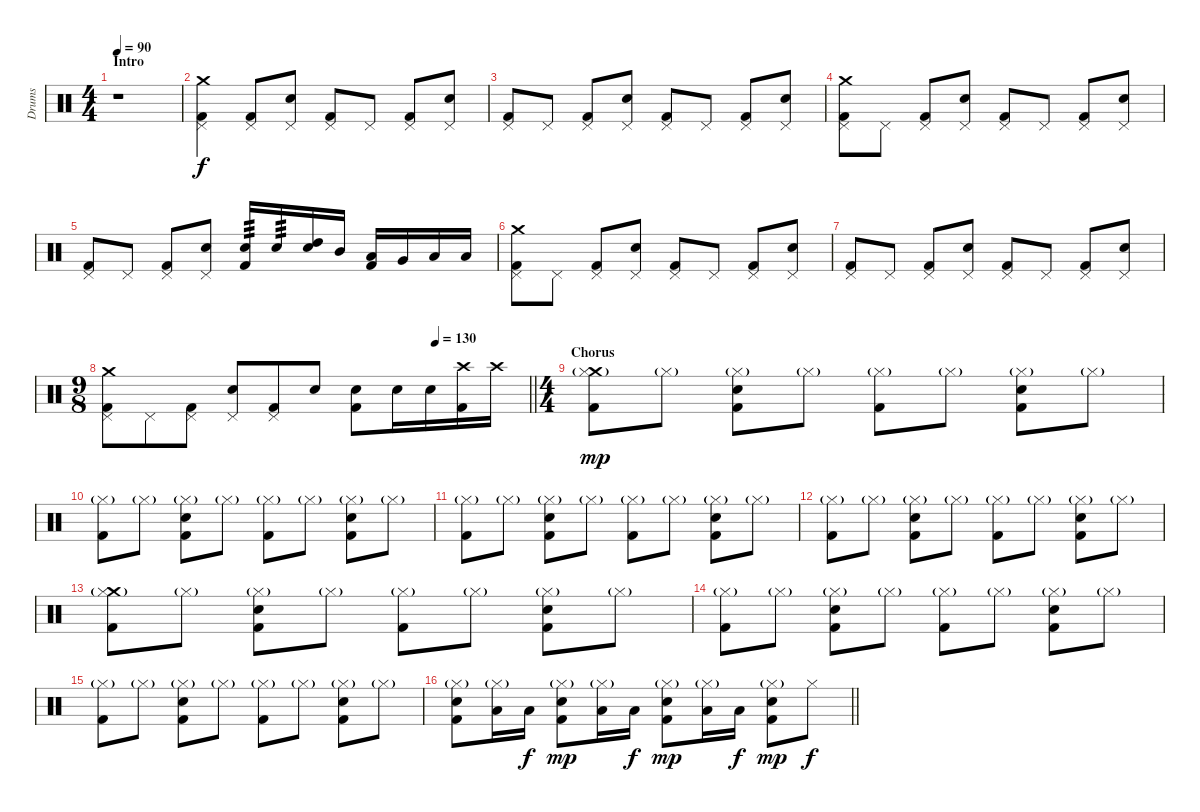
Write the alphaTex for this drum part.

\track ("Drums" "Drums") {instrument percussion}
\staff {score}
\articulation defaults
\ts (4 4)
\section ("" "Intro")
\tempo 90
\clef neutral
\ks c
r.1{dy f} |
("Crash medium (hit)" "Pedal Hi-Hat (hit)" "Kick (hit) 2").4 ("Pedal Hi-Hat (hit)" "Kick (hit) 2").8 ("Pedal Hi-Hat (hit)" "Electric Snare (hit)").8 ("Pedal Hi-Hat (hit)" "Kick (hit) 2").8 "Pedal Hi-Hat (hit)".8 ("Pedal Hi-Hat (hit)" "Kick (hit) 2").8 ("Pedal Hi-Hat (hit)" "Electric Snare (hit)").8 |
("Pedal Hi-Hat (hit)" "Kick (hit) 2").8 "Pedal Hi-Hat (hit)".8 ("Pedal Hi-Hat (hit)" "Kick (hit) 2").8 ("Pedal Hi-Hat (hit)" "Electric Snare (hit)").8 ("Pedal Hi-Hat (hit)" "Kick (hit) 2").8 "Pedal Hi-Hat (hit)".8 ("Pedal Hi-Hat (hit)" "Kick (hit) 2").8 ("Pedal Hi-Hat (hit)" "Electric Snare (hit)").8 |
("Crash medium (hit)" "Pedal Hi-Hat (hit)" "Kick (hit) 2").8 "Pedal Hi-Hat (hit)".8 ("Pedal Hi-Hat (hit)" "Kick (hit) 2").8 ("Pedal Hi-Hat (hit)" "Electric Snare (hit)").8 ("Pedal Hi-Hat (hit)" "Kick (hit) 2").8 "Pedal Hi-Hat (hit)".8 ("Pedal Hi-Hat (hit)" "Kick (hit) 2").8 ("Pedal Hi-Hat (hit)" "Electric Snare (hit)").8 |
("Pedal Hi-Hat (hit)" "Kick (hit) 2").8 "Pedal Hi-Hat (hit)".8 ("Pedal Hi-Hat (hit)" "Kick (hit) 2").8 ("Pedal Hi-Hat (hit)" "Electric Snare (hit)").8 ("Electric Snare (hit)" "Kick (hit) 2").16{tp 3} "Electric Snare (hit)".16{tp 3} ("High Tom (hit)" "Electric Snare (hit)").16 "Mid Tom (hit)".16 ("Low Tom (hit)" "Kick (hit) 2").16 "Very Low Tom (hit)".16 "Low Floor Tom (hit)".16 "Low Floor Tom (hit)".16 |
("Crash medium (hit)" "Pedal Hi-Hat (hit)" "Kick (hit) 2").8 "Pedal Hi-Hat (hit)".8 ("Pedal Hi-Hat (hit)" "Kick (hit) 2").8 ("Pedal Hi-Hat (hit)" "Electric Snare (hit)").8 ("Pedal Hi-Hat (hit)" "Kick (hit) 2").8 "Pedal Hi-Hat (hit)".8 ("Pedal Hi-Hat (hit)" "Kick (hit) 2").8 ("Pedal Hi-Hat (hit)" "Electric Snare (hit)").8 |
("Pedal Hi-Hat (hit)" "Kick (hit) 2").8 "Pedal Hi-Hat (hit)".8 ("Pedal Hi-Hat (hit)" "Kick (hit) 2").8 ("Pedal Hi-Hat (hit)" "Electric Snare (hit)").8 ("Pedal Hi-Hat (hit)" "Kick (hit) 2").8 "Pedal Hi-Hat (hit)".8 ("Pedal Hi-Hat (hit)" "Kick (hit) 2").8 ("Pedal Hi-Hat (hit)" "Electric Snare (hit)").8 |
\ts (9 8)
\tempo (130 0.7777777777777778)
\barLineRight lightlight
("Crash medium (hit)" "Pedal Hi-Hat (hit)" "Kick (hit) 2").8 "Pedal Hi-Hat (hit)".8 ("Pedal Hi-Hat (hit)" "Kick (hit) 2").8 ("Pedal Hi-Hat (hit)" "Electric Snare (hit)").8 ("Pedal Hi-Hat (hit)" "Kick (hit) 2").8 "Electric Snare (hit)".8 ("Electric Snare (hit)" "Kick (hit) 2").8 "Electric Snare (hit)".16 "Electric Snare (hit)".16 ("Crash high (hit)" "Kick (hit) 2").16 "Crash high (hit)".16 |
\ts (4 4)
\section ("" "Chorus")
("Crash medium (hit)" "Hi-Hat (closed)"{g} "Kick (hit) 2").8{dy mp} "Hi-Hat (closed)"{g}.8 ("Hi-Hat (closed)"{g} "Electric Snare (hit)" "Kick (hit) 2").8 "Hi-Hat (closed)"{g}.8 ("Hi-Hat (closed)"{g} "Kick (hit) 2").8 "Hi-Hat (closed)"{g}.8 ("Hi-Hat (closed)"{g} "Electric Snare (hit)" "Kick (hit) 2").8 "Hi-Hat (closed)"{g}.8 |
("Hi-Hat (closed)"{g} "Kick (hit) 2").8 "Hi-Hat (closed)"{g}.8 ("Hi-Hat (closed)"{g} "Electric Snare (hit)" "Kick (hit) 2").8 "Hi-Hat (closed)"{g}.8 ("Hi-Hat (closed)"{g} "Kick (hit) 2").8 "Hi-Hat (closed)"{g}.8 ("Hi-Hat (closed)"{g} "Electric Snare (hit)" "Kick (hit) 2").8 "Hi-Hat (closed)"{g}.8 |
("Hi-Hat (closed)"{g} "Kick (hit) 2").8 "Hi-Hat (closed)"{g}.8 ("Hi-Hat (closed)"{g} "Electric Snare (hit)" "Kick (hit) 2").8 "Hi-Hat (closed)"{g}.8 ("Hi-Hat (closed)"{g} "Kick (hit) 2").8 "Hi-Hat (closed)"{g}.8 ("Hi-Hat (closed)"{g} "Electric Snare (hit)" "Kick (hit) 2").8 "Hi-Hat (closed)"{g}.8 |
("Hi-Hat (closed)"{g} "Kick (hit) 2").8 "Hi-Hat (closed)"{g}.8 ("Hi-Hat (closed)"{g} "Electric Snare (hit)" "Kick (hit) 2").8 "Hi-Hat (closed)"{g}.8 ("Hi-Hat (closed)"{g} "Kick (hit) 2").8 "Hi-Hat (closed)"{g}.8 ("Hi-Hat (closed)"{g} "Electric Snare (hit)" "Kick (hit) 2").8 "Hi-Hat (closed)"{g}.8 |
("Crash medium (hit)" "Hi-Hat (closed)"{g} "Kick (hit) 2").8 "Hi-Hat (closed)"{g}.8 ("Hi-Hat (closed)"{g} "Electric Snare (hit)" "Kick (hit) 2").8 "Hi-Hat (closed)"{g}.8 ("Hi-Hat (closed)"{g} "Kick (hit) 2").8 "Hi-Hat (closed)"{g}.8 ("Hi-Hat (closed)"{g} "Electric Snare (hit)" "Kick (hit) 2").8 "Hi-Hat (closed)"{g}.8 |
("Hi-Hat (closed)"{g} "Kick (hit) 2").8 "Hi-Hat (closed)"{g}.8 ("Hi-Hat (closed)"{g} "Electric Snare (hit)" "Kick (hit) 2").8 "Hi-Hat (closed)"{g}.8 ("Hi-Hat (closed)"{g} "Kick (hit) 2").8 "Hi-Hat (closed)"{g}.8 ("Hi-Hat (closed)"{g} "Electric Snare (hit)" "Kick (hit) 2").8 "Hi-Hat (closed)"{g}.8 |
("Hi-Hat (closed)"{g} "Kick (hit) 2").8 "Hi-Hat (closed)"{g}.8 ("Hi-Hat (closed)"{g} "Electric Snare (hit)" "Kick (hit) 2").8 "Hi-Hat (closed)"{g}.8 ("Hi-Hat (closed)"{g} "Kick (hit) 2").8 "Hi-Hat (closed)"{g}.8 ("Hi-Hat (closed)"{g} "Electric Snare (hit)" "Kick (hit) 2").8 "Hi-Hat (closed)"{g}.8 |
\barLineRight lightlight
("Hi-Hat (closed)"{g} "Electric Snare (hit)" "Kick (hit) 2").8 ("Hi-Hat (closed)"{g} "Low Floor Tom (hit)").16 "Low Floor Tom (hit)".16{dy f} ("Hi-Hat (closed)"{g} "Electric Snare (hit)" "Kick (hit) 2").8{dy mp} ("Hi-Hat (closed)"{g} "Low Floor Tom (hit)").16 "Low Floor Tom (hit)".16{dy f} ("Hi-Hat (closed)"{g} "Electric Snare (hit)" "Kick (hit) 2").8{dy mp} ("Hi-Hat (closed)"{g} "Low Floor Tom (hit)").16 "Low Floor Tom (hit)".16{dy f} ("Hi-Hat (closed)"{g} "Electric Snare (hit)" "Kick (hit) 2").8{dy mp} "Hi-Hat (closed)".8{dy f}
